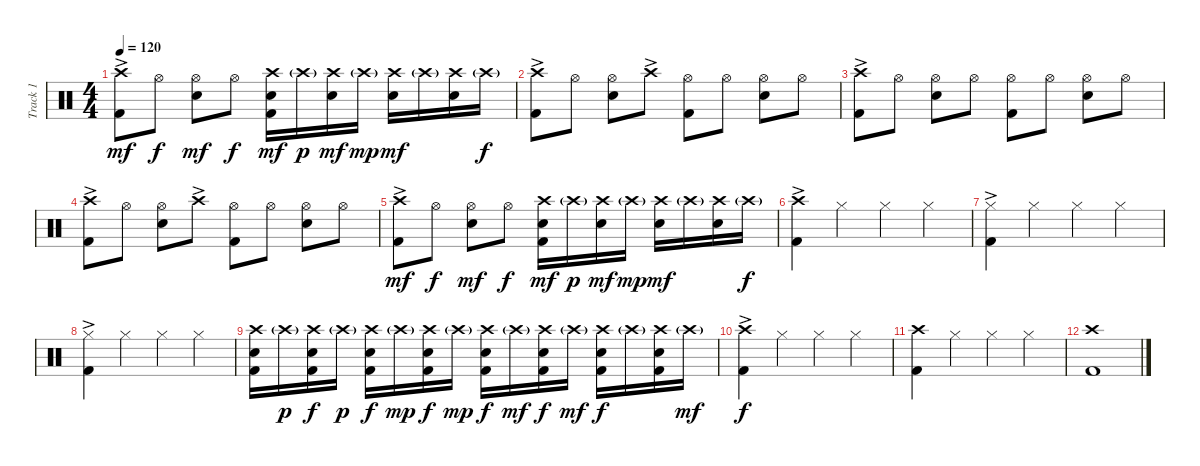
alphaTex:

\track ("Track 1" "Track 1") {instrument percussion}
\staff {score}
\articulation defaults
\ts (4 4)
\tempo 120
\clef neutral
\ks c
("Crash high (hit)"{ac} "Kick (hit) 2").8{dy mf} "Hi-Hat (open)".8{dy f} ("Hi-Hat (open)" "Snare (hit) 2").8{dy mf} "Hi-Hat (open)".8{dy f} ("Crash high (hit)" "Snare (hit) 2" "Kick (hit) 2").16{dy mf} "Crash high (hit)"{g}.16{dy p} ("Crash high (hit)" "Snare (hit) 2").16{dy mf} "Crash high (hit)"{g}.16{dy mp} ("Crash high (hit)" "Snare (hit) 2").16{dy mf} "Crash high (hit)"{g}.16 ("Crash high (hit)" "Snare (hit) 2").16 "Crash high (hit)"{g}.16{dy f} |
("Crash high (hit)"{ac} "Kick (hit) 2").8 "Hi-Hat (open)".8 ("Hi-Hat (open)" "Snare (hit) 2").8 "Crash high (hit)"{ac}.8 ("Hi-Hat (open)" "Kick (hit) 2").8 "Hi-Hat (open)".8 ("Hi-Hat (open)" "Snare (hit) 2").8 "Hi-Hat (open)".8 |
("Crash high (hit)"{ac} "Kick (hit) 2").8 "Hi-Hat (open)".8 ("Hi-Hat (open)" "Snare (hit) 2").8 "Hi-Hat (open)".8 ("Hi-Hat (open)" "Kick (hit) 2").8 "Hi-Hat (open)".8 ("Hi-Hat (open)" "Snare (hit) 2").8 "Hi-Hat (open)".8 |
("Crash high (hit)"{ac} "Kick (hit) 2").8 "Hi-Hat (open)".8 ("Hi-Hat (open)" "Snare (hit) 2").8 "Crash high (hit)"{ac}.8 ("Hi-Hat (open)" "Kick (hit) 2").8 "Hi-Hat (open)".8 ("Hi-Hat (open)" "Snare (hit) 2").8 "Hi-Hat (open)".8 |
("Crash high (hit)"{ac} "Kick (hit) 2").8{dy mf} "Hi-Hat (open)".8{dy f} ("Hi-Hat (open)" "Snare (hit) 2").8{dy mf} "Hi-Hat (open)".8{dy f} ("Crash high (hit)" "Snare (hit) 2" "Kick (hit) 2").16{dy mf} "Crash high (hit)"{g}.16{dy p} ("Crash high (hit)" "Snare (hit) 2").16{dy mf} "Crash high (hit)"{g}.16{dy mp} ("Crash high (hit)" "Snare (hit) 2").16{dy mf} "Crash high (hit)"{g}.16 ("Crash high (hit)" "Snare (hit) 2").16 "Crash high (hit)"{g}.16{dy f} |
("Crash high (hit)"{ac} "Kick (hit) 2").4 "Hi-Hat (closed)".4 "Hi-Hat (closed)".4 "Hi-Hat (closed)".4 |
("Hi-Hat (closed)"{ac} "Kick (hit) 2").4 "Hi-Hat (closed)".4 "Hi-Hat (closed)".4 "Hi-Hat (closed)".4 |
("Hi-Hat (closed)"{ac} "Kick (hit) 2").4 "Hi-Hat (closed)".4 "Hi-Hat (closed)".4 "Hi-Hat (closed)".4 |
("Crash high (hit)" "Snare (hit) 2" "Kick (hit) 2").16 "Crash high (hit)"{g}.16{dy p} ("Crash high (hit)" "Snare (hit) 2" "Kick (hit) 2").16{dy f} "Crash high (hit)"{g}.16{dy p} ("Crash high (hit)" "Snare (hit) 2" "Kick (hit) 2").16{dy f} "Crash high (hit)"{g}.16{dy mp} ("Crash high (hit)" "Snare (hit) 2" "Kick (hit) 2").16{dy f} "Crash high (hit)"{g}.16{dy mp} ("Crash high (hit)" "Snare (hit) 2" "Kick (hit) 2").16{dy f} "Crash high (hit)"{g}.16{dy mf} ("Crash high (hit)" "Snare (hit) 2" "Kick (hit) 2").16{dy f} "Crash high (hit)"{g}.16{dy mf} ("Crash high (hit)" "Snare (hit) 2" "Kick (hit) 2").16{dy f} "Crash high (hit)"{g}.16 ("Crash high (hit)" "Snare (hit) 2" "Kick (hit) 2").16 "Crash high (hit)"{g}.16{dy mf} |
("Crash high (hit)"{ac} "Kick (hit) 2").4{dy f} "Hi-Hat (closed)".4 "Hi-Hat (closed)".4 "Hi-Hat (closed)".4 |
("Crash high (hit)" "Kick (hit) 2").4 "Hi-Hat (closed)".4 "Hi-Hat (closed)".4 "Hi-Hat (closed)".4 |
("Crash high (hit)" "Kick (hit) 2").1
